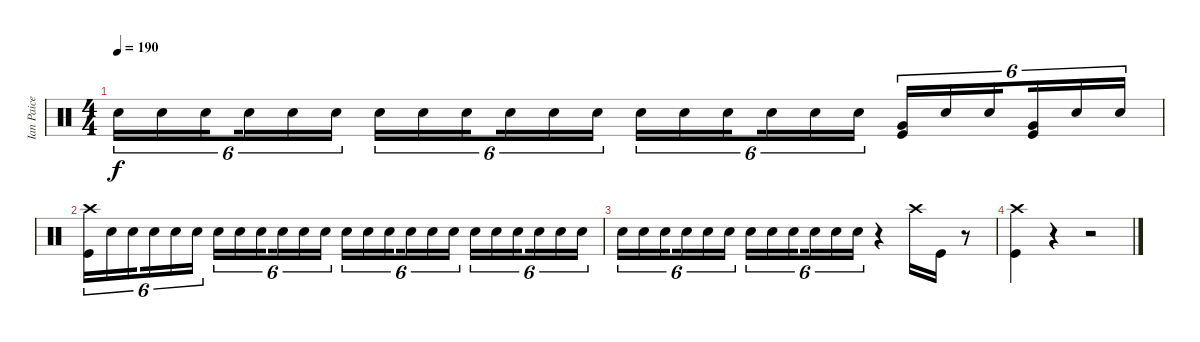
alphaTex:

\track ("Ian Paice" "Ian Paice") {instrument percussion}
\staff {score}
\articulation defaults
\ts (4 4)
\tempo 190
\clef neutral
\ks c "Snare (hit) 2".16{tu (6 4) dy f} "Snare (hit) 2".16{tu (6 4)} "Snare (hit) 2".16{tu (6 4) beam splitsecondary} "Snare (hit) 2".16{tu (6 4)} "Snare (hit) 2".16{tu (6 4)} "Snare (hit) 2".16{tu (6 4)} "Snare (hit) 2".16{tu (6 4)} "Snare (hit) 2".16{tu (6 4)} "Snare (hit) 2".16{tu (6 4) beam splitsecondary} "Snare (hit) 2".16{tu (6 4)} "Snare (hit) 2".16{tu (6 4)} "Snare (hit) 2".16{tu (6 4)} "Snare (hit) 2".16{tu (6 4)} "Snare (hit) 2".16{tu (6 4)} "Snare (hit) 2".16{tu (6 4) beam splitsecondary} "Snare (hit) 2".16{tu (6 4)} "Snare (hit) 2".16{tu (6 4)} "Snare (hit) 2".16{tu (6 4)}
("Kick (hit)" "Very Low Tom (hit)").16{tu (6 4)} "Snare (hit) 2".16{tu (6 4)} "Snare (hit) 2".16{tu (6 4) beam splitsecondary} ("Kick (hit)" "Very Low Tom (hit)").16{tu (6 4)} "Snare (hit) 2".16{tu (6 4)} "Snare (hit) 2".16{tu (6 4)} |
("Kick (hit)" "Crash high (hit)").16{tu (6 4)} "Snare (hit) 2".16{tu (6 4)} "Snare (hit) 2".16{tu (6 4) beam splitsecondary} "Snare (hit) 2".16{tu (6 4)} "Snare (hit) 2".16{tu (6 4)} "Snare (hit) 2".16{tu (6 4)} "Snare (hit) 2".16{tu (6 4)} "Snare (hit) 2".16{tu (6 4)} "Snare (hit) 2".16{tu (6 4) beam splitsecondary} "Snare (hit) 2".16{tu (6 4)} "Snare (hit) 2".16{tu (6 4)} "Snare (hit) 2".16{tu (6 4)} "Snare (hit) 2".16{tu (6 4)} "Snare (hit) 2".16{tu (6 4)} "Snare (hit) 2".16{tu (6 4) beam splitsecondary} "Snare (hit) 2".16{tu (6 4)} "Snare (hit) 2".16{tu (6 4)} "Snare (hit) 2".16{tu (6 4)} "Snare (hit) 2".16{tu (6 4)} "Snare (hit) 2".16{tu (6 4)} "Snare (hit) 2".16{tu (6 4) beam splitsecondary} "Snare (hit) 2".16{tu (6 4)} "Snare (hit) 2".16{tu (6 4)} "Snare (hit) 2".16{tu (6 4)} |
"Snare (hit) 2".16{tu (6 4)} "Snare (hit) 2".16{tu (6 4)} "Snare (hit) 2".16{tu (6 4) beam splitsecondary} "Snare (hit) 2".16{tu (6 4)} "Snare (hit) 2".16{tu (6 4)} "Snare (hit) 2".16{tu (6 4)} "Snare (hit) 2".16{tu (6 4)} "Snare (hit) 2".16{tu (6 4)} "Snare (hit) 2".16{tu (6 4) beam splitsecondary} "Snare (hit) 2".16{tu (6 4)} "Snare (hit) 2".16{tu (6 4)} "Snare (hit) 2".16{tu (6 4)} r.4 "Crash high (hit)".16 "Kick (hit)".16 r.8 |
("Crash high (hit)" "Kick (hit)").4 r.4 r.2
